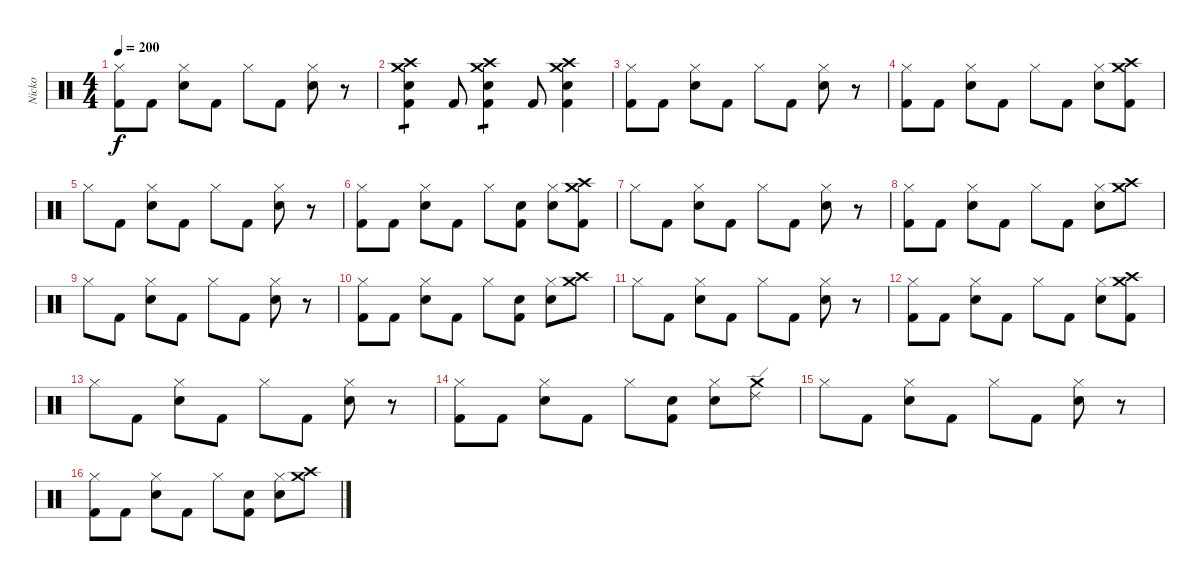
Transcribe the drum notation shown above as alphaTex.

\track ("Nicko" "Nicko") {instrument percussion}
\staff {score}
\articulation defaults
\ts (4 4)
\tempo 200
\clef neutral
\ks c
("Hi-Hat (closed)" "Kick (hit) 2").8{dy f} "Kick (hit) 2".8 ("Hi-Hat (closed)" "Electric Snare (hit)").8 "Kick (hit) 2".8 "Hi-Hat (closed)".8 "Kick (hit) 2".8 ("Hi-Hat (closed)" "Electric Snare (hit)").8 r.8 |
("Crash high (hit)" "Crash medium (hit)" "Electric Snare (hit)" "Kick (hit) 2").4{tp 1} "Kick (hit) 2".8 ("Crash high (hit)" "Crash medium (hit)" "Electric Snare (hit)" "Kick (hit) 2").4{tp 1} "Kick (hit) 2".8 ("Crash high (hit)" "Crash medium (hit)" "Electric Snare (hit)" "Kick (hit) 2").4 |
("Hi-Hat (closed)" "Kick (hit) 2").8 "Kick (hit) 2".8 ("Hi-Hat (closed)" "Electric Snare (hit)").8 "Kick (hit) 2".8 "Hi-Hat (closed)".8 "Kick (hit) 2".8 ("Hi-Hat (closed)" "Electric Snare (hit)").8 r.8 |
("Hi-Hat (closed)" "Kick (hit) 2").8 "Kick (hit) 2".8 ("Hi-Hat (closed)" "Electric Snare (hit)").8 "Kick (hit) 2".8 "Hi-Hat (closed)".8 "Kick (hit) 2".8 ("Hi-Hat (closed)" "Electric Snare (hit)").8 ("Crash high (hit)" "Crash medium (hit)" "Kick (hit) 2").8 |
"Hi-Hat (closed)".8 "Kick (hit) 2".8 ("Hi-Hat (closed)" "Electric Snare (hit)").8 "Kick (hit) 2".8 "Hi-Hat (closed)".8 "Kick (hit) 2".8 ("Hi-Hat (closed)" "Electric Snare (hit)").8 r.8 |
("Hi-Hat (closed)" "Kick (hit) 2").8 "Kick (hit) 2".8 ("Hi-Hat (closed)" "Electric Snare (hit)").8 "Kick (hit) 2".8 "Hi-Hat (closed)".8 ("Electric Snare (hit)" "Kick (hit) 2").8 ("Hi-Hat (closed)" "Electric Snare (hit)").8 ("Crash medium (hit)" "Crash high (hit)" "Kick (hit) 2").8 |
"Hi-Hat (closed)".8 "Kick (hit) 2".8 ("Hi-Hat (closed)" "Electric Snare (hit)").8 "Kick (hit) 2".8 "Hi-Hat (closed)".8 "Kick (hit) 2".8 ("Hi-Hat (closed)" "Electric Snare (hit)").8 r.8 |
("Hi-Hat (closed)" "Kick (hit) 2").8 "Kick (hit) 2".8 ("Hi-Hat (closed)" "Electric Snare (hit)").8 "Kick (hit) 2".8 "Hi-Hat (closed)".8 "Kick (hit) 2".8 ("Hi-Hat (closed)" "Electric Snare (hit)").8 ("Crash medium (hit)" "Crash high (hit)").8 |
"Hi-Hat (closed)".8 "Kick (hit) 2".8 ("Hi-Hat (closed)" "Electric Snare (hit)").8 "Kick (hit) 2".8 "Hi-Hat (closed)".8 "Kick (hit) 2".8 ("Hi-Hat (closed)" "Electric Snare (hit)").8 r.8 |
("Hi-Hat (closed)" "Kick (hit) 2").8 "Kick (hit) 2".8 ("Hi-Hat (closed)" "Electric Snare (hit)").8 "Kick (hit) 2".8 "Hi-Hat (closed)".8 ("Electric Snare (hit)" "Kick (hit) 2").8 ("Hi-Hat (closed)" "Electric Snare (hit)").8 ("Crash medium (hit)" "Crash high (hit)").8 |
"Hi-Hat (closed)".8 "Kick (hit) 2".8 ("Hi-Hat (closed)" "Electric Snare (hit)").8 "Kick (hit) 2".8 "Hi-Hat (closed)".8 "Kick (hit) 2".8 ("Hi-Hat (closed)" "Electric Snare (hit)").8 r.8 |
("Hi-Hat (closed)" "Kick (hit) 2").8 "Kick (hit) 2".8 ("Hi-Hat (closed)" "Electric Snare (hit)").8 "Kick (hit) 2".8 "Hi-Hat (closed)".8 "Kick (hit) 2".8 ("Hi-Hat (closed)" "Electric Snare (hit)").8 ("Crash high (hit)" "Crash medium (hit)" "Kick (hit) 2").8 |
"Hi-Hat (closed)".8 "Kick (hit) 2".8 ("Hi-Hat (closed)" "Electric Snare (hit)").8 "Kick (hit) 2".8 "Hi-Hat (closed)".8 "Kick (hit) 2".8 ("Hi-Hat (closed)" "Electric Snare (hit)").8 r.8 |
("Hi-Hat (closed)" "Kick (hit) 2").8 "Kick (hit) 2".8 ("Hi-Hat (closed)" "Electric Snare (hit)").8 "Kick (hit) 2".8 "Hi-Hat (closed)".8 ("Electric Snare (hit)" "Kick (hit) 2").8 ("Hi-Hat (closed)" "Electric Snare (hit)").8 ("Crash medium (hit)" "Ride (edge) 2").8 |
"Hi-Hat (closed)".8 "Kick (hit) 2".8 ("Hi-Hat (closed)" "Electric Snare (hit)").8 "Kick (hit) 2".8 "Hi-Hat (closed)".8 "Kick (hit) 2".8 ("Hi-Hat (closed)" "Electric Snare (hit)").8 r.8 |
("Hi-Hat (closed)" "Kick (hit) 2").8 "Kick (hit) 2".8 ("Hi-Hat (closed)" "Electric Snare (hit)").8 "Kick (hit) 2".8 "Hi-Hat (closed)".8 ("Electric Snare (hit)" "Kick (hit) 2").8 ("Hi-Hat (closed)" "Electric Snare (hit)").8 ("Crash medium (hit)" "Crash high (hit)").8
